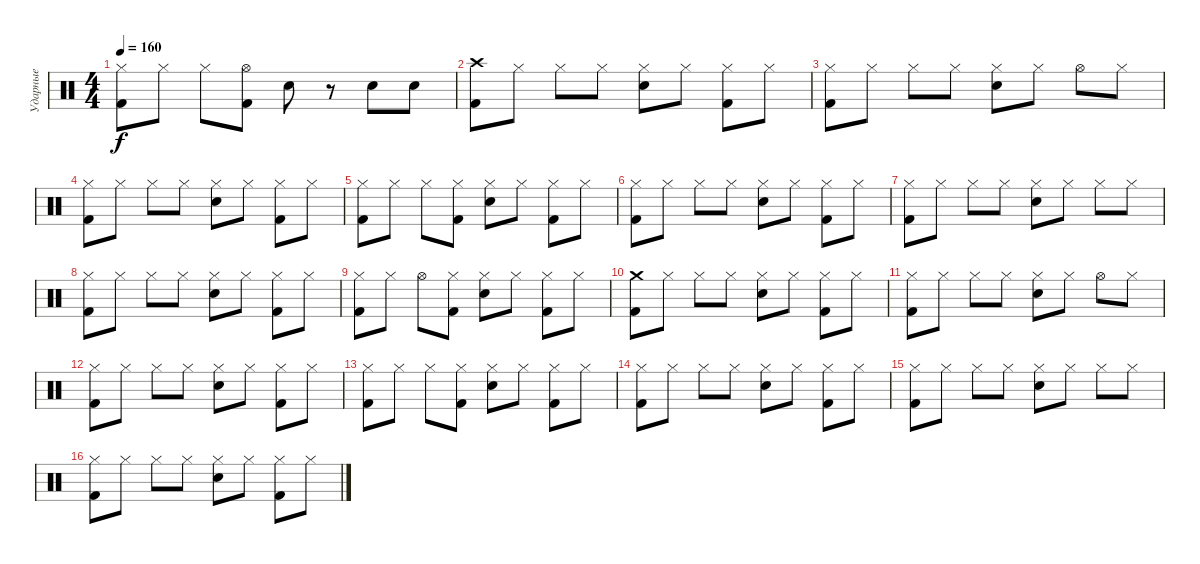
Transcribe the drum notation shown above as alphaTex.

\track ("Ударные" "Ударные") {instrument percussion}
\staff {score}
\articulation defaults
\ts (4 4)
\tempo 160
\clef neutral
\ks c
("Kick (hit) 2" "Hi-Hat (closed)").8{dy f} "Hi-Hat (closed)".8 "Hi-Hat (closed)".8 ("Kick (hit) 2" "Hi-Hat (open)").8 "Electric Snare (hit)".8 r.8 "Electric Snare (hit)".8 "Electric Snare (hit)".8 |
("Kick (hit) 2" "Crash high (hit)").8 "Hi-Hat (closed)".8 "Hi-Hat (closed)".8 "Hi-Hat (closed)".8 ("Electric Snare (hit)" "Hi-Hat (closed)").8 "Hi-Hat (closed)".8 ("Kick (hit) 2" "Hi-Hat (closed)").8 "Hi-Hat (closed)".8 |
("Kick (hit) 2" "Hi-Hat (closed)").8 "Hi-Hat (closed)".8 "Hi-Hat (closed)".8 "Hi-Hat (closed)".8 ("Electric Snare (hit)" "Hi-Hat (closed)").8 "Hi-Hat (closed)".8 "Hi-Hat (open)".8 "Hi-Hat (closed)".8 |
("Kick (hit) 2" "Hi-Hat (closed)").8 "Hi-Hat (closed)".8 "Hi-Hat (closed)".8 "Hi-Hat (closed)".8 ("Electric Snare (hit)" "Hi-Hat (closed)").8 "Hi-Hat (closed)".8 ("Kick (hit) 2" "Hi-Hat (closed)").8 "Hi-Hat (closed)".8 |
("Kick (hit) 2" "Hi-Hat (closed)").8 "Hi-Hat (closed)".8 "Hi-Hat (closed)".8 ("Kick (hit) 2" "Hi-Hat (closed)").8 ("Electric Snare (hit)" "Hi-Hat (closed)").8 "Hi-Hat (closed)".8 ("Kick (hit) 2" "Hi-Hat (closed)").8 "Hi-Hat (closed)".8 |
("Kick (hit) 2" "Hi-Hat (closed)").8 "Hi-Hat (closed)".8 "Hi-Hat (closed)".8 "Hi-Hat (closed)".8 ("Electric Snare (hit)" "Hi-Hat (closed)").8 "Hi-Hat (closed)".8 ("Kick (hit) 2" "Hi-Hat (closed)").8 "Hi-Hat (closed)".8 |
("Kick (hit) 2" "Hi-Hat (closed)").8 "Hi-Hat (closed)".8 "Hi-Hat (closed)".8 "Hi-Hat (closed)".8 ("Electric Snare (hit)" "Hi-Hat (closed)").8 "Hi-Hat (closed)".8 "Hi-Hat (closed)".8 "Hi-Hat (closed)".8 |
("Kick (hit) 2" "Hi-Hat (closed)").8 "Hi-Hat (closed)".8 "Hi-Hat (closed)".8 "Hi-Hat (closed)".8 ("Electric Snare (hit)" "Hi-Hat (closed)").8 "Hi-Hat (closed)".8 ("Kick (hit) 2" "Hi-Hat (closed)").8 "Hi-Hat (closed)".8 |
("Kick (hit) 2" "Hi-Hat (closed)").8 "Hi-Hat (closed)".8 "Hi-Hat (open)".8 ("Kick (hit) 2" "Hi-Hat (closed)").8 ("Electric Snare (hit)" "Hi-Hat (closed)").8 "Hi-Hat (closed)".8 ("Kick (hit) 2" "Hi-Hat (closed)").8 "Hi-Hat (closed)".8 |
("Kick (hit) 2" "Crash medium (hit)").8 "Hi-Hat (closed)".8 "Hi-Hat (closed)".8 "Hi-Hat (closed)".8 ("Electric Snare (hit)" "Hi-Hat (closed)").8 "Hi-Hat (closed)".8 ("Kick (hit) 2" "Hi-Hat (closed)").8 "Hi-Hat (closed)".8 |
("Kick (hit) 2" "Hi-Hat (closed)").8 "Hi-Hat (closed)".8 "Hi-Hat (closed)".8 "Hi-Hat (closed)".8 ("Electric Snare (hit)" "Hi-Hat (closed)").8 "Hi-Hat (closed)".8 "Hi-Hat (open)".8 "Hi-Hat (closed)".8 |
("Kick (hit) 2" "Hi-Hat (closed)").8 "Hi-Hat (closed)".8 "Hi-Hat (closed)".8 "Hi-Hat (closed)".8 ("Electric Snare (hit)" "Hi-Hat (closed)").8 "Hi-Hat (closed)".8 ("Kick (hit) 2" "Hi-Hat (closed)").8 "Hi-Hat (closed)".8 |
("Kick (hit) 2" "Hi-Hat (closed)").8 "Hi-Hat (closed)".8 "Hi-Hat (closed)".8 ("Kick (hit) 2" "Hi-Hat (closed)").8 ("Electric Snare (hit)" "Hi-Hat (closed)").8 "Hi-Hat (closed)".8 ("Kick (hit) 2" "Hi-Hat (closed)").8 "Hi-Hat (closed)".8 |
("Kick (hit) 2" "Hi-Hat (closed)").8 "Hi-Hat (closed)".8 "Hi-Hat (closed)".8 "Hi-Hat (closed)".8 ("Electric Snare (hit)" "Hi-Hat (closed)").8 "Hi-Hat (closed)".8 ("Kick (hit) 2" "Hi-Hat (closed)").8 "Hi-Hat (closed)".8 |
("Kick (hit) 2" "Hi-Hat (closed)").8 "Hi-Hat (closed)".8 "Hi-Hat (closed)".8 "Hi-Hat (closed)".8 ("Electric Snare (hit)" "Hi-Hat (closed)").8 "Hi-Hat (closed)".8 "Hi-Hat (closed)".8 "Hi-Hat (closed)".8 |
("Kick (hit) 2" "Hi-Hat (closed)").8 "Hi-Hat (closed)".8 "Hi-Hat (closed)".8 "Hi-Hat (closed)".8 ("Electric Snare (hit)" "Hi-Hat (closed)").8 "Hi-Hat (closed)".8 ("Kick (hit) 2" "Hi-Hat (closed)").8 "Hi-Hat (closed)".8
